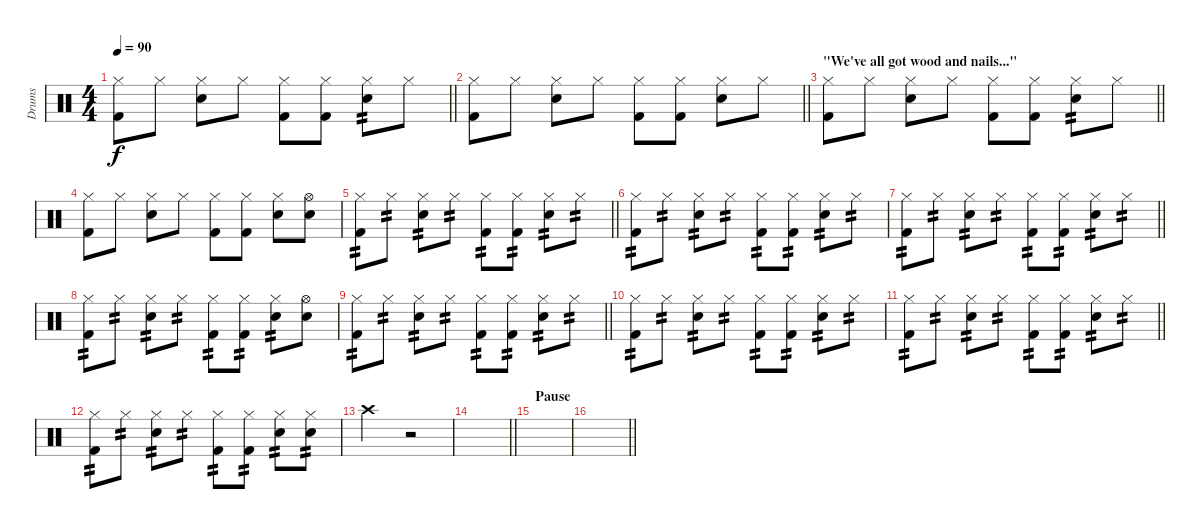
\track ("Drums" "Drums") {instrument percussion}
\staff {score}
\articulation defaults
\ts (4 4)
\tempo 90
\clef neutral
\barLineRight lightlight
\ks c
("Hi-Hat (closed)" "Kick (hit) 2").8{dy f} "Hi-Hat (closed)".8 ("Hi-Hat (closed)" "Electric Snare (hit)").8 "Hi-Hat (closed)".8 ("Hi-Hat (closed)" "Kick (hit) 2").8 ("Hi-Hat (closed)" "Kick (hit) 2").8 ("Hi-Hat (closed)" "Electric Snare (hit)").8{tp 2} "Hi-Hat (closed)".8 |
\barLineRight lightlight
("Hi-Hat (closed)" "Kick (hit) 2").8 "Hi-Hat (closed)".8 ("Hi-Hat (closed)" "Electric Snare (hit)").8 "Hi-Hat (closed)".8 ("Hi-Hat (closed)" "Kick (hit) 2").8 ("Hi-Hat (closed)" "Kick (hit) 2").8 ("Hi-Hat (closed)" "Electric Snare (hit)").8 "Hi-Hat (closed)".8 |
\section ("" "\"We've all got wood and nails...\"")
\barLineRight lightlight
("Hi-Hat (closed)" "Kick (hit) 2").8 "Hi-Hat (closed)".8 ("Hi-Hat (closed)" "Electric Snare (hit)").8 "Hi-Hat (closed)".8 ("Hi-Hat (closed)" "Kick (hit) 2").8 ("Hi-Hat (closed)" "Kick (hit) 2").8 ("Hi-Hat (closed)" "Electric Snare (hit)").8{tp 2} "Hi-Hat (closed)".8 |
("Hi-Hat (closed)" "Kick (hit) 2").8 "Hi-Hat (closed)".8 ("Hi-Hat (closed)" "Electric Snare (hit)").8 "Hi-Hat (closed)".8 ("Hi-Hat (closed)" "Kick (hit) 2").8 ("Hi-Hat (closed)" "Kick (hit) 2").8 ("Hi-Hat (closed)" "Electric Snare (hit)").8 ("Hi-Hat (open)" "Electric Snare (hit)").8 |
\barLineRight lightlight
("Hi-Hat (closed)" "Kick (hit) 2").8{tp 2} "Hi-Hat (closed)".8{tp 2} ("Hi-Hat (closed)" "Electric Snare (hit)").8{tp 2} "Hi-Hat (closed)".8{tp 2} ("Hi-Hat (closed)" "Kick (hit) 2").8{tp 2} ("Hi-Hat (closed)" "Kick (hit) 2").8{tp 2} ("Hi-Hat (closed)" "Electric Snare (hit)").8{tp 2} "Hi-Hat (closed)".8{tp 2} |
("Hi-Hat (closed)" "Kick (hit) 2").8{tp 2} "Hi-Hat (closed)".8{tp 2} ("Hi-Hat (closed)" "Electric Snare (hit)").8{tp 2} "Hi-Hat (closed)".8{tp 2} ("Hi-Hat (closed)" "Kick (hit) 2").8{tp 2} ("Hi-Hat (closed)" "Kick (hit) 2").8{tp 2} ("Hi-Hat (closed)" "Electric Snare (hit)").8{tp 2} "Hi-Hat (closed)".8{tp 2} |
\barLineRight lightlight
("Hi-Hat (closed)" "Kick (hit) 2").8{tp 2} "Hi-Hat (closed)".8{tp 2} ("Hi-Hat (closed)" "Electric Snare (hit)").8{tp 2} "Hi-Hat (closed)".8{tp 2} ("Hi-Hat (closed)" "Kick (hit) 2").8{tp 2} ("Hi-Hat (closed)" "Kick (hit) 2").8{tp 2} ("Hi-Hat (closed)" "Electric Snare (hit)").8{tp 2} "Hi-Hat (closed)".8{tp 2} |
("Hi-Hat (closed)" "Kick (hit) 2").8{tp 2} "Hi-Hat (closed)".8{tp 2} ("Hi-Hat (closed)" "Electric Snare (hit)").8{tp 2} "Hi-Hat (closed)".8{tp 2} ("Hi-Hat (closed)" "Kick (hit) 2").8{tp 2} ("Hi-Hat (closed)" "Kick (hit) 2").8{tp 2} ("Hi-Hat (closed)" "Electric Snare (hit)").8{tp 2} ("Hi-Hat (open)" "Electric Snare (hit)").8 |
\barLineRight lightlight
("Hi-Hat (closed)" "Kick (hit) 2").8{tp 2} "Hi-Hat (closed)".8{tp 2} ("Hi-Hat (closed)" "Electric Snare (hit)").8{tp 2} "Hi-Hat (closed)".8{tp 2} ("Hi-Hat (closed)" "Kick (hit) 2").8{tp 2} ("Hi-Hat (closed)" "Kick (hit) 2").8{tp 2} ("Hi-Hat (closed)" "Electric Snare (hit)").8{tp 2} "Hi-Hat (closed)".8{tp 2} |
("Hi-Hat (closed)" "Kick (hit) 2").8{tp 2} "Hi-Hat (closed)".8{tp 2} ("Hi-Hat (closed)" "Electric Snare (hit)").8{tp 2} "Hi-Hat (closed)".8{tp 2} ("Hi-Hat (closed)" "Kick (hit) 2").8{tp 2} ("Hi-Hat (closed)" "Kick (hit) 2").8{tp 2} ("Hi-Hat (closed)" "Electric Snare (hit)").8{tp 2} "Hi-Hat (closed)".8{tp 2} |
\barLineRight lightlight
("Hi-Hat (closed)" "Kick (hit) 2").8{tp 2} "Hi-Hat (closed)".8{tp 2} ("Hi-Hat (closed)" "Electric Snare (hit)").8{tp 2} "Hi-Hat (closed)".8{tp 2} ("Hi-Hat (closed)" "Kick (hit) 2").8{tp 2} ("Hi-Hat (closed)" "Kick (hit) 2").8{tp 2} ("Hi-Hat (closed)" "Electric Snare (hit)").8{tp 2} "Hi-Hat (closed)".8{tp 2} |
("Hi-Hat (closed)" "Kick (hit) 2").8{tp 2} "Hi-Hat (closed)".8{tp 2} ("Hi-Hat (closed)" "Electric Snare (hit)").8{tp 2} "Hi-Hat (closed)".8{tp 2} ("Hi-Hat (closed)" "Kick (hit) 2").8{tp 2} ("Hi-Hat (closed)" "Kick (hit) 2").8{tp 2} ("Hi-Hat (closed)" "Electric Snare (hit)").8{tp 2} ("Hi-Hat (closed)" "Electric Snare (hit)").8{tp 2} |
"Crash high (hit)".2 r.2 |
\barLineRight lightlight
|
\section ("" "Pause")
|
\barLineRight lightlight
